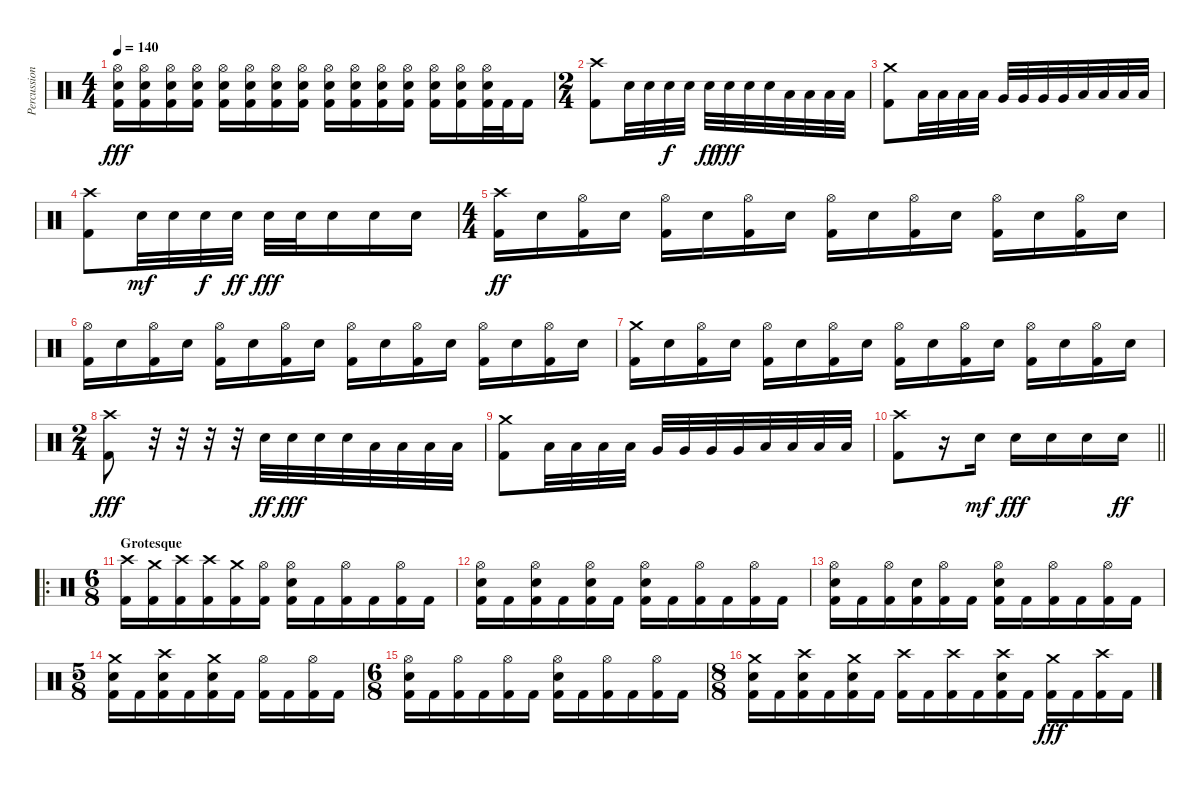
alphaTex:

\track ("Percussion" "Percussion") {instrument percussion}
\staff {score}
\articulation defaults
\ts (4 4)
\tempo 140
\clef neutral
\ks c
("Hi-Hat (open)" "Electric Snare (hit)" "Kick (hit) 2").16{dy fff} ("Hi-Hat (open)" "Electric Snare (hit)" "Kick (hit) 2").16 ("Hi-Hat (open)" "Electric Snare (hit)" "Kick (hit) 2").16 ("Hi-Hat (open)" "Electric Snare (hit)" "Kick (hit) 2").16 ("Hi-Hat (open)" "Electric Snare (hit)" "Kick (hit) 2").16 ("Hi-Hat (open)" "Electric Snare (hit)" "Kick (hit) 2").16 ("Hi-Hat (open)" "Electric Snare (hit)" "Kick (hit) 2").16 ("Hi-Hat (open)" "Electric Snare (hit)" "Kick (hit) 2").16 ("Hi-Hat (open)" "Electric Snare (hit)" "Kick (hit) 2").16 ("Hi-Hat (open)" "Electric Snare (hit)" "Kick (hit) 2").16 ("Hi-Hat (open)" "Electric Snare (hit)" "Kick (hit) 2").16 ("Hi-Hat (open)" "Electric Snare (hit)" "Kick (hit) 2").16 ("Hi-Hat (open)" "Electric Snare (hit)" "Kick (hit) 2").16 ("Hi-Hat (open)" "Electric Snare (hit)" "Kick (hit) 2").16 ("Hi-Hat (open)" "Electric Snare (hit)" "Kick (hit) 2").32 "Kick (hit) 2".32 "Kick (hit) 2".16 |
\ts (2 4)
("Crash high (hit)" "Kick (hit) 2").8 "Electric Snare (hit)".32 "Electric Snare (hit)".32 "Electric Snare (hit)".32{dy f} "Electric Snare (hit)".32 "Electric Snare (hit)".32{dy ff} "Electric Snare (hit)".32{dy fff} "Electric Snare (hit)".32 "Electric Snare (hit)".32 "Low Tom (hit)".32 "Low Tom (hit)".32 "Low Tom (hit)".32 "Low Tom (hit)".32 |
("Crash medium (hit)" "Kick (hit) 2").8 "Low Tom (hit)".32 "Low Tom (hit)".32 "Low Tom (hit)".32 "Low Tom (hit)".32 "Very Low Tom (hit)".32 "Very Low Tom (hit)".32 "Very Low Tom (hit)".32 "Very Low Tom (hit)".32 "Low Floor Tom (hit)".32 "Low Floor Tom (hit)".32 "Low Floor Tom (hit)".32 "Low Floor Tom (hit)".32 |
("Crash high (hit)" "Kick (hit) 2").8 "Electric Snare (hit)".32{dy mf} "Electric Snare (hit)".32 "Electric Snare (hit)".32{dy f} "Electric Snare (hit)".32{dy ff} "Electric Snare (hit)".32{dy fff} "Electric Snare (hit)".32 "Electric Snare (hit)".16 "Electric Snare (hit)".16 "Electric Snare (hit)".16 |
\ts (4 4)
("Crash high (hit)" "Kick (hit) 2").16{dy ff} "Electric Snare (hit)".16 ("Hi-Hat (open)" "Kick (hit) 2").16 "Electric Snare (hit)".16 ("Hi-Hat (open)" "Kick (hit) 2").16 "Electric Snare (hit)".16 ("Hi-Hat (open)" "Kick (hit) 2").16 "Electric Snare (hit)".16 ("Hi-Hat (open)" "Kick (hit) 2").16 "Electric Snare (hit)".16 ("Hi-Hat (open)" "Kick (hit) 2").16 "Electric Snare (hit)".16 ("Hi-Hat (open)" "Kick (hit) 2").16 "Electric Snare (hit)".16 ("Hi-Hat (open)" "Kick (hit) 2").16 "Electric Snare (hit)".16 |
("Hi-Hat (open)" "Kick (hit) 2").16 "Electric Snare (hit)".16 ("Hi-Hat (open)" "Kick (hit) 2").16 "Electric Snare (hit)".16 ("Hi-Hat (open)" "Kick (hit) 2").16 "Electric Snare (hit)".16 ("Hi-Hat (open)" "Kick (hit) 2").16 "Electric Snare (hit)".16 ("Hi-Hat (open)" "Kick (hit) 2").16 "Electric Snare (hit)".16 ("Hi-Hat (open)" "Kick (hit) 2").16 "Electric Snare (hit)".16 ("Hi-Hat (open)" "Kick (hit) 2").16 "Electric Snare (hit)".16 ("Hi-Hat (open)" "Kick (hit) 2").16 "Electric Snare (hit)".16 |
("Crash medium (hit)" "Kick (hit) 2").16 "Electric Snare (hit)".16 ("Hi-Hat (open)" "Kick (hit) 2").16 "Electric Snare (hit)".16 ("Hi-Hat (open)" "Kick (hit) 2").16 "Electric Snare (hit)".16 ("Hi-Hat (open)" "Kick (hit) 2").16 "Electric Snare (hit)".16 ("Hi-Hat (open)" "Kick (hit) 2").16 "Electric Snare (hit)".16 ("Hi-Hat (open)" "Kick (hit) 2").16 "Electric Snare (hit)".16 ("Hi-Hat (open)" "Kick (hit) 2").16 "Electric Snare (hit)".16 ("Hi-Hat (open)" "Kick (hit) 2").16 "Electric Snare (hit)".16 |
\ts (2 4)
("Crash high (hit)" "Kick (hit) 2").8{dy fff} r.32 r.32 r.32 r.32 "Electric Snare (hit)".32{dy ff} "Electric Snare (hit)".32{dy fff} "Electric Snare (hit)".32 "Electric Snare (hit)".32 "Low Tom (hit)".32 "Low Tom (hit)".32 "Low Tom (hit)".32 "Low Tom (hit)".32 |
("Crash medium (hit)" "Kick (hit) 2").8 "Low Tom (hit)".32 "Low Tom (hit)".32 "Low Tom (hit)".32 "Low Tom (hit)".32 "Very Low Tom (hit)".32 "Very Low Tom (hit)".32 "Very Low Tom (hit)".32 "Very Low Tom (hit)".32 "Low Floor Tom (hit)".32 "Low Floor Tom (hit)".32 "Low Floor Tom (hit)".32 "Low Floor Tom (hit)".32 |
\barLineRight lightlight
("Crash high (hit)" "Kick (hit) 2").8 r.16 "Electric Snare (hit)".16{dy mf} "Electric Snare (hit)".16{dy fff} "Electric Snare (hit)".16 "Electric Snare (hit)".16 "Electric Snare (hit)".16{dy ff} |
\ro
\ts (6 8)
\section ("" "Grotesque")
("Crash high (hit)" "Kick (hit) 2").16 ("Crash medium (hit)" "Kick (hit) 2").16 ("Crash high (hit)" "Kick (hit) 2").16 ("Crash high (hit)" "Kick (hit) 2").16 ("Crash medium (hit)" "Kick (hit) 2").16 ("Hi-Hat (open)" "Kick (hit) 2").16 ("Hi-Hat (open)" "Electric Snare (hit)" "Kick (hit) 2").16 "Kick (hit) 2".16 ("Hi-Hat (open)" "Kick (hit) 2").16 "Kick (hit) 2".16 ("Hi-Hat (open)" "Kick (hit) 2").16 "Kick (hit) 2".16 |
("Hi-Hat (open)" "Electric Snare (hit)" "Kick (hit) 2").16 "Kick (hit) 2".16 ("Hi-Hat (open)" "Electric Snare (hit)" "Kick (hit) 2").16 "Kick (hit) 2".16 ("Hi-Hat (open)" "Electric Snare (hit)" "Kick (hit) 2").16 "Kick (hit) 2".16 ("Hi-Hat (open)" "Electric Snare (hit)" "Kick (hit) 2").16 "Kick (hit) 2".16 ("Hi-Hat (open)" "Kick (hit) 2").16 "Kick (hit) 2".16 ("Hi-Hat (open)" "Kick (hit) 2").16 "Kick (hit) 2".16 |
("Hi-Hat (open)" "Electric Snare (hit)" "Kick (hit) 2").16 "Kick (hit) 2".16 ("Hi-Hat (open)" "Kick (hit) 2").16 ("Electric Snare (hit)" "Kick (hit) 2").16 ("Hi-Hat (open)" "Kick (hit) 2").16 "Kick (hit) 2".16 ("Hi-Hat (open)" "Electric Snare (hit)" "Kick (hit) 2").16 "Kick (hit) 2".16 ("Hi-Hat (open)" "Kick (hit) 2").16 "Kick (hit) 2".16 ("Hi-Hat (open)" "Kick (hit) 2").16 "Kick (hit) 2".16 |
\ts (5 8)
("Crash medium (hit)" "Electric Snare (hit)" "Kick (hit) 2").16 "Kick (hit) 2".16 ("Crash high (hit)" "Electric Snare (hit)" "Kick (hit) 2").16 "Kick (hit) 2".16 ("Crash medium (hit)" "Electric Snare (hit)" "Kick (hit) 2").16 "Kick (hit) 2".16 ("Hi-Hat (open)" "Kick (hit) 2").16 "Kick (hit) 2".16 ("Hi-Hat (open)" "Kick (hit) 2").16 "Kick (hit) 2".16 |
\ts (6 8)
("Hi-Hat (open)" "Electric Snare (hit)" "Kick (hit) 2").16 "Kick (hit) 2".16 ("Hi-Hat (open)" "Kick (hit) 2").16 "Kick (hit) 2".16 ("Hi-Hat (open)" "Kick (hit) 2").16 "Kick (hit) 2".16 ("Hi-Hat (open)" "Electric Snare (hit)" "Kick (hit) 2").16 "Kick (hit) 2".16 ("Hi-Hat (open)" "Kick (hit) 2").16 "Kick (hit) 2".16 ("Hi-Hat (open)" "Kick (hit) 2").16 "Kick (hit) 2".16 |
\ts (8 8)
("Crash medium (hit)" "Electric Snare (hit)" "Kick (hit) 2").16 "Kick (hit) 2".16 ("Crash high (hit)" "Electric Snare (hit)" "Kick (hit) 2").16 "Kick (hit) 2".16 ("Crash medium (hit)" "Electric Snare (hit)" "Kick (hit) 2").16 "Kick (hit) 2".16 ("Crash high (hit)" "Kick (hit) 2").16 "Kick (hit) 2".16 ("Crash high (hit)" "Kick (hit) 2").16 "Kick (hit) 2".16 ("Crash high (hit)" "Electric Snare (hit)" "Kick (hit) 2").16 "Kick (hit) 2".16 ("Crash medium (hit)" "Kick (hit) 2").16{dy fff} "Kick (hit) 2".16 ("Crash high (hit)" "Kick (hit) 2").16 "Kick (hit) 2".16
